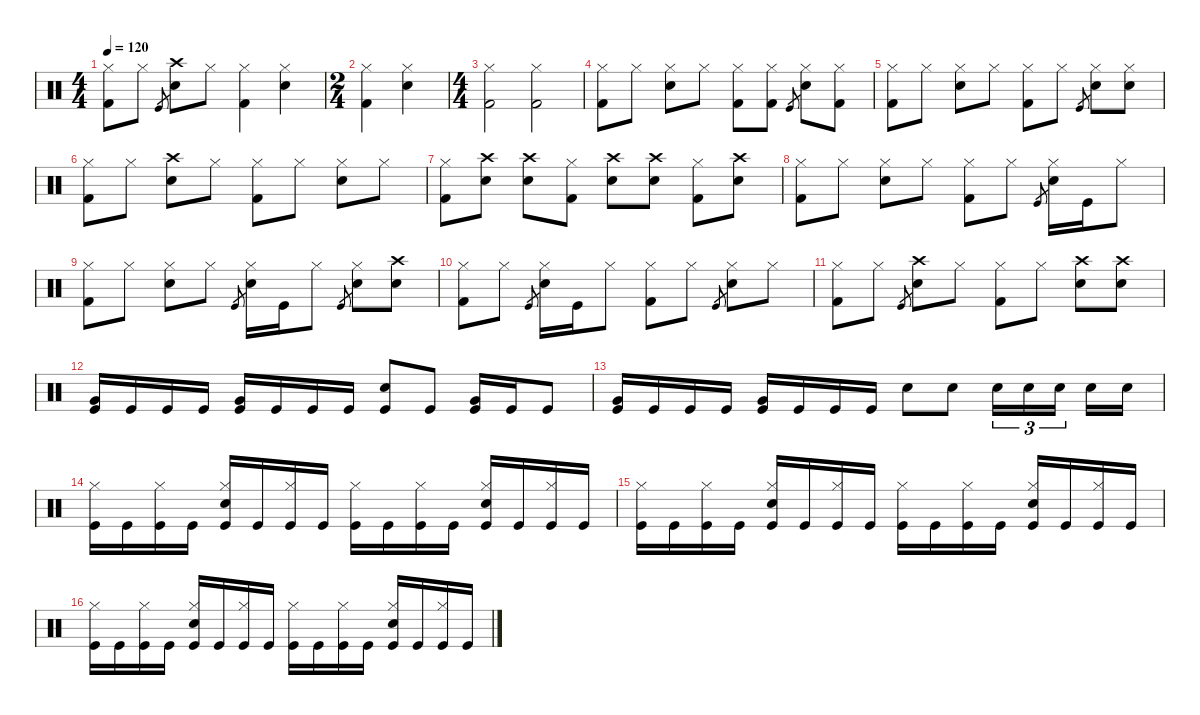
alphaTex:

\defaultSystemsLayout 4
\hideDynamics
\bracketExtendMode nobrackets
\singleTrackTrackNamePolicy hidden
\multiTrackTrackNamePolicy hidden
\otherSystemsTrackNameOrientation horizontal
\track ("Ulrich" "drm.") {instrument percussion}
\staff {score}
\articulation defaults
\ts (4 4)
\tempo 120
\clef neutral
\ks c
("Hi-Hat (closed)" "Kick (hit) 2").8{dy f beam Down} "Hi-Hat (closed)".8{beam Down} "Kick (hit)".8{gr dy ff beam Up} ("Crash high (hit)" "Snare (hit) 2").8{dy f beam Down} "Hi-Hat (closed)".8{beam Down} ("Hi-Hat (closed)" "Kick (hit) 2").4{beam Down} ("Hi-Hat (closed)" "Snare (hit) 2").4{beam Down} |
\ts (2 4)
("Hi-Hat (closed)" "Kick (hit) 2").4{beam Down} ("Hi-Hat (closed)" "Snare (hit) 2").4{beam Down} |
\ts (4 4)
("Hi-Hat (closed)" "Kick (hit) 2").2{beam Down} ("Hi-Hat (closed)" "Kick (hit) 2").2{beam Down} |
("Hi-Hat (closed)" "Kick (hit) 2").8{beam Down} "Hi-Hat (closed)".8{beam Down} ("Hi-Hat (closed)" "Snare (hit) 2").8{beam Down} "Hi-Hat (closed)".8{beam Down} ("Hi-Hat (closed)" "Kick (hit) 2").8{beam Down} ("Hi-Hat (closed)" "Kick (hit) 2").8{beam Down} "Kick (hit)".8{gr dy ff beam Up} ("Hi-Hat (closed)" "Snare (hit) 2").8{dy f beam Down} ("Hi-Hat (closed)" "Kick (hit) 2").8{beam Down} |
("Hi-Hat (closed)" "Kick (hit) 2").8{beam Down} "Hi-Hat (closed)".8{beam Down} ("Hi-Hat (closed)" "Snare (hit) 2").8{beam Down} "Hi-Hat (closed)".8{beam Down} ("Hi-Hat (closed)" "Kick (hit) 2").8{beam Down} "Hi-Hat (closed)".8{beam Down} "Kick (hit)".8{gr dy ff beam Up} ("Hi-Hat (closed)" "Snare (hit) 2").8{dy f beam Down} ("Hi-Hat (closed)" "Snare (hit) 2").8{beam Down} |
("Hi-Hat (closed)" "Kick (hit) 2").8{beam Down} "Hi-Hat (closed)".8{beam Down} ("Crash high (hit)" "Snare (hit) 2").8{beam Down} "Hi-Hat (closed)".8{beam Down} ("Hi-Hat (closed)" "Kick (hit) 2").8{beam Down} "Hi-Hat (closed)".8{beam Down} ("Hi-Hat (closed)" "Snare (hit) 2").8{beam Down} "Hi-Hat (closed)".8{beam Down} |
("Hi-Hat (closed)" "Kick (hit) 2").8{beam Down} ("Crash high (hit)" "Snare (hit) 2").8{beam Down} ("Crash high (hit)" "Snare (hit) 2").8{beam Down} ("Hi-Hat (closed)" "Kick (hit) 2").8{beam Down} ("Crash high (hit)" "Snare (hit) 2").8{beam Down} ("Crash high (hit)" "Snare (hit) 2").8{beam Down} ("Hi-Hat (closed)" "Kick (hit) 2").8{beam Down} ("Crash high (hit)" "Snare (hit) 2").8{beam Down} |
("Hi-Hat (closed)" "Kick (hit) 2").8{beam Down} "Hi-Hat (closed)".8{beam Down} ("Hi-Hat (closed)" "Snare (hit) 2").8{beam Down} "Hi-Hat (closed)".8{beam Down} ("Hi-Hat (closed)" "Kick (hit) 2").8{beam Down} "Hi-Hat (closed)".8{beam Down} "Kick (hit)".8{gr dy ff beam Up} ("Hi-Hat (closed)" "Snare (hit) 2").16{dy f beam Down} "Kick (hit)".16{dy fff beam Down} "Hi-Hat (closed)".8{dy f beam Down} |
("Hi-Hat (closed)" "Kick (hit) 2").8{beam Down} "Hi-Hat (closed)".8{beam Down} ("Hi-Hat (closed)" "Snare (hit) 2").8{beam Down} "Hi-Hat (closed)".8{beam Down} "Kick (hit)".8{gr dy ff beam Up} ("Hi-Hat (closed)" "Snare (hit) 2").16{dy f beam Down} "Kick (hit)".16{dy fff beam Down} "Hi-Hat (closed)".8{dy f beam Down} "Kick (hit)".8{gr dy ff beam Up} ("Hi-Hat (closed)" "Snare (hit) 2").8{dy f beam Down} ("Crash high (hit)" "Snare (hit) 2").8{beam Down} |
("Hi-Hat (closed)" "Kick (hit) 2").8{beam Down} "Hi-Hat (closed)".8{beam Down} "Kick (hit)".8{gr dy ff beam Up} ("Hi-Hat (closed)" "Snare (hit) 2").16{dy f beam Down} "Kick (hit)".16{dy fff beam Down} "Hi-Hat (closed)".8{dy f beam Down} ("Hi-Hat (closed)" "Kick (hit) 2").8{beam Down} "Hi-Hat (closed)".8{beam Down} "Kick (hit)".8{gr dy ff beam Up} ("Hi-Hat (closed)" "Snare (hit) 2").8{dy f beam Down} "Hi-Hat (closed)".8{beam Down} |
("Hi-Hat (closed)" "Kick (hit) 2").8{beam Down} "Hi-Hat (closed)".8{beam Down} "Kick (hit)".8{gr dy mf beam Up} ("Crash high (hit)" "Snare (hit) 2").8{dy f beam Down} "Hi-Hat (closed)".8{beam Down} ("Hi-Hat (closed)" "Kick (hit) 2").8{beam Down} "Hi-Hat (closed)".8{beam Down} ("Crash high (hit)" "Snare (hit) 2").8{beam Down} ("Crash high (hit)" "Snare (hit) 2").8{beam Down} |
("Kick (hit)" "Very Low Tom (hit)").16{dy fff beam Up} "Kick (hit)".16{beam Up} "Kick (hit)".16{beam Up} "Kick (hit)".16{beam Up} ("Kick (hit)" "Very Low Tom (hit)").16{beam Up} "Kick (hit)".16{beam Up} "Kick (hit)".16{beam Up} "Kick (hit)".16{beam Up} ("Kick (hit)" "Snare (hit) 2").8{beam Up} "Kick (hit)".8{beam Up} ("Kick (hit)" "Very Low Tom (hit)").16{beam Up} "Kick (hit)".16{beam Up} "Kick (hit)".8{beam Up} |
("Kick (hit)" "Very Low Tom (hit)").16{beam Up} "Kick (hit)".16{beam Up} "Kick (hit)".16{beam Up} "Kick (hit)".16{beam Up} ("Kick (hit)" "Very Low Tom (hit)").16{beam Up} "Kick (hit)".16{beam Up} "Kick (hit)".16{beam Up} "Kick (hit)".16{beam Up} "Snare (hit) 2".8{dy f beam Down} "Snare (hit) 2".8{beam Down} "Snare (hit) 2".16{tu (3 2) beam Down} "Snare (hit) 2".16{tu (3 2) beam Down} "Snare (hit) 2".16{tu (3 2) beam Down} "Snare (hit) 2".16{beam Down} "Snare (hit) 2".16{beam Down} |
("Hi-Hat (closed)" "Kick (hit)").16{beam Down} "Kick (hit)".16{dy fff beam Down} ("Hi-Hat (closed)" "Kick (hit)").16{dy f beam Down} "Kick (hit)".16{dy fff beam Down} ("Hi-Hat (closed)" "Kick (hit)" "Snare (hit) 2").16{dy f beam Up} "Kick (hit)".16{dy fff beam Up} ("Hi-Hat (closed)" "Kick (hit)").16{dy f beam Up} "Kick (hit)".16{dy fff beam Up} ("Hi-Hat (closed)" "Kick (hit)").16{dy f beam Down} "Kick (hit)".16{dy fff beam Down} ("Hi-Hat (closed)" "Kick (hit)").16{dy f beam Down} "Kick (hit)".16{dy fff beam Down} ("Hi-Hat (closed)" "Kick (hit)" "Snare (hit) 2").16{dy f beam Up} "Kick (hit)".16{dy fff beam Up} ("Hi-Hat (closed)" "Kick (hit)").16{dy f beam Up} "Kick (hit)".16{dy fff beam Up} |
("Hi-Hat (closed)" "Kick (hit)").16{dy f beam Down} "Kick (hit)".16{dy fff beam Down} ("Hi-Hat (closed)" "Kick (hit)").16{dy f beam Down} "Kick (hit)".16{dy fff beam Down} ("Hi-Hat (closed)" "Kick (hit)" "Snare (hit) 2").16{dy f beam Up} "Kick (hit)".16{dy fff beam Up} ("Hi-Hat (closed)" "Kick (hit)").16{dy f beam Up} "Kick (hit)".16{dy fff beam Up} ("Hi-Hat (closed)" "Kick (hit)").16{dy f beam Down} "Kick (hit)".16{dy fff beam Down} ("Hi-Hat (closed)" "Kick (hit)").16{dy f beam Down} "Kick (hit)".16{dy fff beam Down} ("Hi-Hat (closed)" "Kick (hit)" "Snare (hit) 2").16{dy f beam Up} "Kick (hit)".16{dy fff beam Up} ("Hi-Hat (closed)" "Kick (hit)").16{dy f beam Up} "Kick (hit)".16{dy fff beam Up} |
("Hi-Hat (closed)" "Kick (hit)").16{dy f beam Down} "Kick (hit)".16{dy fff beam Down} ("Hi-Hat (closed)" "Kick (hit)").16{dy f beam Down} "Kick (hit)".16{dy fff beam Down} ("Hi-Hat (closed)" "Kick (hit)" "Snare (hit) 2").16{dy f beam Up} "Kick (hit)".16{dy fff beam Up} ("Hi-Hat (closed)" "Kick (hit)").16{dy f beam Up} "Kick (hit)".16{dy fff beam Up} ("Hi-Hat (closed)" "Kick (hit)").16{dy f beam Down} "Kick (hit)".16{dy fff beam Down} ("Hi-Hat (closed)" "Kick (hit)").16{dy f beam Down} "Kick (hit)".16{dy fff beam Down} ("Hi-Hat (closed)" "Kick (hit)" "Snare (hit) 2").16{dy f beam Up} "Kick (hit)".16{dy fff beam Up} ("Hi-Hat (closed)" "Kick (hit)").16{dy f beam Up} "Kick (hit)".16{dy fff beam Up}
